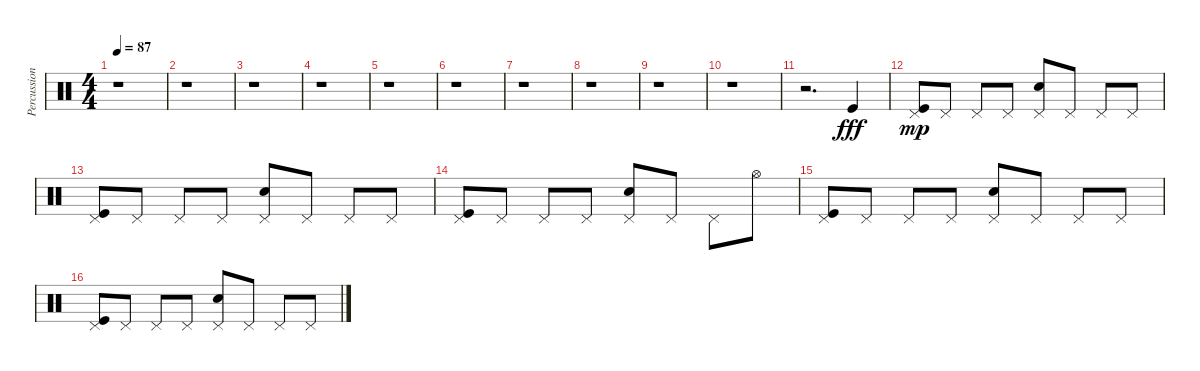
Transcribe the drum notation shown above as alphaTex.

\track ("Percussion" "Percussion") {instrument percussion}
\staff {score}
\articulation defaults
\ts (4 4)
\tempo 87
\clef neutral
\ks c
r.1{dy fff} |
r.1 |
r.1 |
r.1 |
r.1 |
r.1 |
r.1 |
r.1 |
r.1 |
r.1 |
r.2{d} "Kick (hit)".4 |
("Kick (hit)" "Pedal Hi-Hat (hit)").8{dy mp} "Pedal Hi-Hat (hit)".8 "Pedal Hi-Hat (hit)".8 "Pedal Hi-Hat (hit)".8 ("Snare (hit) 2" "Pedal Hi-Hat (hit)").8 "Pedal Hi-Hat (hit)".8 "Pedal Hi-Hat (hit)".8 "Pedal Hi-Hat (hit)".8 |
("Kick (hit)" "Pedal Hi-Hat (hit)").8 "Pedal Hi-Hat (hit)".8 "Pedal Hi-Hat (hit)".8 "Pedal Hi-Hat (hit)".8 ("Snare (hit) 2" "Pedal Hi-Hat (hit)").8 "Pedal Hi-Hat (hit)".8 "Pedal Hi-Hat (hit)".8 "Pedal Hi-Hat (hit)".8 |
("Kick (hit)" "Pedal Hi-Hat (hit)").8 "Pedal Hi-Hat (hit)".8 "Pedal Hi-Hat (hit)".8 "Pedal Hi-Hat (hit)".8 ("Snare (hit) 2" "Pedal Hi-Hat (hit)").8 "Pedal Hi-Hat (hit)".8 "Pedal Hi-Hat (hit)".8 "Hi-Hat (open)".8 |
("Kick (hit)" "Pedal Hi-Hat (hit)").8 "Pedal Hi-Hat (hit)".8 "Pedal Hi-Hat (hit)".8 "Pedal Hi-Hat (hit)".8 ("Snare (hit) 2" "Pedal Hi-Hat (hit)").8 "Pedal Hi-Hat (hit)".8 "Pedal Hi-Hat (hit)".8 "Pedal Hi-Hat (hit)".8 |
("Kick (hit)" "Pedal Hi-Hat (hit)").8 "Pedal Hi-Hat (hit)".8 "Pedal Hi-Hat (hit)".8 "Pedal Hi-Hat (hit)".8 ("Snare (hit) 2" "Pedal Hi-Hat (hit)").8 "Pedal Hi-Hat (hit)".8 "Pedal Hi-Hat (hit)".8 "Pedal Hi-Hat (hit)".8
